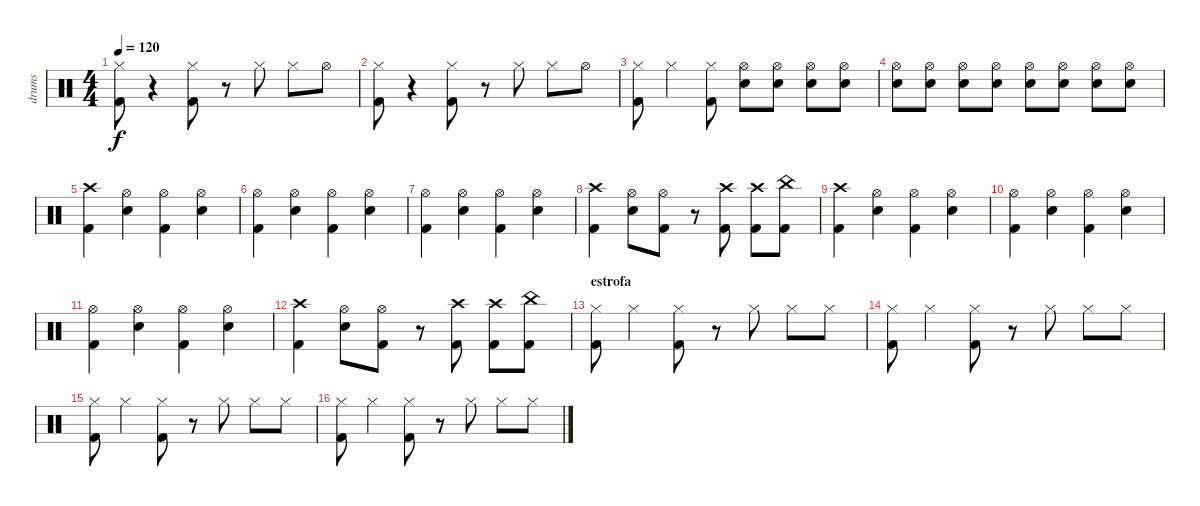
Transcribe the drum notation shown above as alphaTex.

\track ("drums" "drums") {instrument percussion}
\staff {score}
\articulation defaults
\ts (4 4)
\tempo 120
\clef neutral
\ks c
("Kick (hit) 2" "Hi-Hat (closed)").8{dy f} r.4 ("Kick (hit) 2" "Hi-Hat (closed)").8 r.8 "Hi-Hat (closed)".8 "Hi-Hat (closed)".8 "Hi-Hat (open)".8 |
("Kick (hit) 2" "Hi-Hat (closed)").8 r.4 ("Kick (hit) 2" "Hi-Hat (closed)").8 r.8 "Hi-Hat (closed)".8 "Hi-Hat (closed)".8 "Hi-Hat (open)".8 |
("Kick (hit) 2" "Hi-Hat (closed)").8 "Hi-Hat (closed)".4 ("Kick (hit) 2" "Hi-Hat (closed)").8 ("Snare (hit) 2" "Hi-Hat (open)").8 ("Snare (hit) 2" "Hi-Hat (open)").8 ("Snare (hit) 2" "Hi-Hat (open)").8 ("Snare (hit) 2" "Hi-Hat (open)").8 |
("Snare (hit) 2" "Hi-Hat (open)").8 ("Snare (hit) 2" "Hi-Hat (open)").8 ("Snare (hit) 2" "Hi-Hat (open)").8 ("Snare (hit) 2" "Hi-Hat (open)").8 ("Snare (hit) 2" "Hi-Hat (open)").8 ("Snare (hit) 2" "Hi-Hat (open)").8 ("Snare (hit) 2" "Hi-Hat (open)").8 ("Snare (hit) 2" "Hi-Hat (open)").8 |
("Kick (hit) 2" "Crash high (hit)").4 ("Snare (hit) 2" "Hi-Hat (open)").4 ("Kick (hit) 2" "Hi-Hat (open)").4 ("Snare (hit) 2" "Hi-Hat (open)").4 |
("Kick (hit) 2" "Hi-Hat (open)").4 ("Snare (hit) 2" "Hi-Hat (open)").4 ("Kick (hit) 2" "Hi-Hat (open)").4 ("Snare (hit) 2" "Hi-Hat (open)").4 |
("Kick (hit) 2" "Hi-Hat (open)").4 ("Snare (hit) 2" "Hi-Hat (open)").4 ("Kick (hit) 2" "Hi-Hat (open)").4 ("Snare (hit) 2" "Hi-Hat (open)").4 |
("Kick (hit) 2" "Crash high (hit)").4 ("Snare (hit) 2" "Hi-Hat (open)").8 ("Kick (hit) 2" "Hi-Hat (open)").8 r.8 ("Kick (hit) 2" "Crash high (hit)").8 ("Kick (hit) 2" "Crash high (hit)").8 ("Kick (hit) 2" "China (hit)").8 |
("Kick (hit) 2" "Crash high (hit)").4 ("Snare (hit) 2" "Hi-Hat (open)").4 ("Kick (hit) 2" "Hi-Hat (open)").4 ("Snare (hit) 2" "Hi-Hat (open)").4 |
("Kick (hit) 2" "Hi-Hat (open)").4 ("Snare (hit) 2" "Hi-Hat (open)").4 ("Kick (hit) 2" "Hi-Hat (open)").4 ("Snare (hit) 2" "Hi-Hat (open)").4 |
("Kick (hit) 2" "Hi-Hat (open)").4 ("Snare (hit) 2" "Hi-Hat (open)").4 ("Kick (hit) 2" "Hi-Hat (open)").4 ("Snare (hit) 2" "Hi-Hat (open)").4 |
("Kick (hit) 2" "Crash high (hit)").4 ("Snare (hit) 2" "Hi-Hat (open)").8 ("Kick (hit) 2" "Hi-Hat (open)").8 r.8 ("Kick (hit) 2" "Crash high (hit)").8 ("Kick (hit) 2" "Crash high (hit)").8 ("Kick (hit) 2" "China (hit)").8 |
\section ("" "estrofa")
("Kick (hit) 2" "Hi-Hat (closed)").8 "Hi-Hat (closed)".4 ("Kick (hit) 2" "Hi-Hat (closed)").8 r.8 "Hi-Hat (closed)".8 "Hi-Hat (closed)".8 "Hi-Hat (closed)".8 |
("Kick (hit) 2" "Hi-Hat (closed)").8 "Hi-Hat (closed)".4 ("Kick (hit) 2" "Hi-Hat (closed)").8 r.8 "Hi-Hat (closed)".8 "Hi-Hat (closed)".8 "Hi-Hat (closed)".8 |
("Kick (hit) 2" "Hi-Hat (closed)").8 "Hi-Hat (closed)".4 ("Kick (hit) 2" "Hi-Hat (closed)").8 r.8 "Hi-Hat (closed)".8 "Hi-Hat (closed)".8 "Hi-Hat (closed)".8 |
("Kick (hit) 2" "Hi-Hat (closed)").8 "Hi-Hat (closed)".4 ("Kick (hit) 2" "Hi-Hat (closed)").8 r.8 "Hi-Hat (closed)".8 "Hi-Hat (closed)".8 "Hi-Hat (closed)".8
